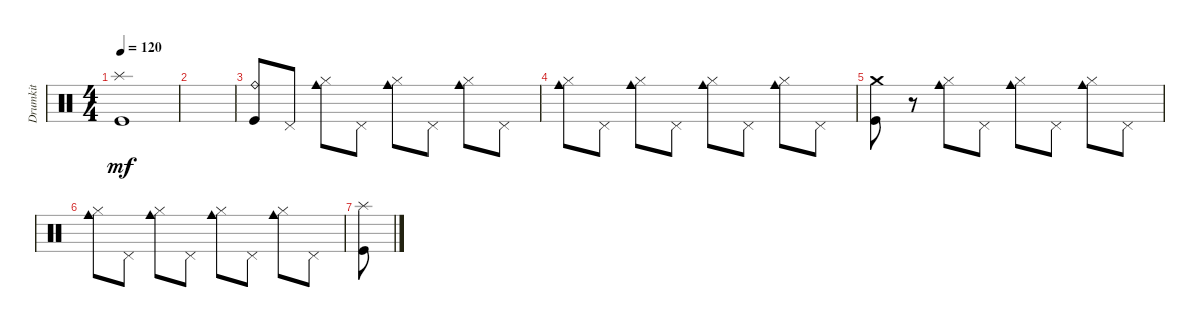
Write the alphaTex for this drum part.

\track ("Drumkit" "Drumkit") {instrument percussion}
\staff {score}
\articulation defaults
\ts (4 4)
\tempo 120
\clef neutral
\ks c
("Kick (hit)" "Splash (hit)").1{dy mf} |
|
("Kick (hit)" "Ride (bell)").8 "Pedal Hi-Hat (hit)".8 ("Hi-Hat (closed)" "Cowbell medium (hit)").8 "Pedal Hi-Hat (hit)".8 ("Hi-Hat (closed)" "Cowbell medium (hit)").8 "Pedal Hi-Hat (hit)".8 ("Hi-Hat (closed)" "Cowbell medium (hit)").8 "Pedal Hi-Hat (hit)".8 |
("Hi-Hat (closed)" "Cowbell medium (hit)").8 "Pedal Hi-Hat (hit)".8 ("Hi-Hat (closed)" "Cowbell medium (hit)").8 "Pedal Hi-Hat (hit)".8 ("Hi-Hat (closed)" "Cowbell medium (hit)").8 "Pedal Hi-Hat (hit)".8 ("Hi-Hat (closed)" "Cowbell medium (hit)").8 "Pedal Hi-Hat (hit)".8 |
("Kick (hit)" "Crash medium (hit)").8 r.8 ("Hi-Hat (closed)" "Cowbell medium (hit)").8 "Pedal Hi-Hat (hit)".8 ("Hi-Hat (closed)" "Cowbell medium (hit)").8 "Pedal Hi-Hat (hit)".8 ("Hi-Hat (closed)" "Cowbell medium (hit)").8 "Pedal Hi-Hat (hit)".8 |
("Hi-Hat (closed)" "Cowbell medium (hit)").8 "Pedal Hi-Hat (hit)".8 ("Hi-Hat (closed)" "Cowbell medium (hit)").8 "Pedal Hi-Hat (hit)".8 ("Hi-Hat (closed)" "Cowbell medium (hit)").8 "Pedal Hi-Hat (hit)".8 ("Hi-Hat (closed)" "Cowbell medium (hit)").8 "Pedal Hi-Hat (hit)".8 |
("Kick (hit)" "Splash (hit)").8
